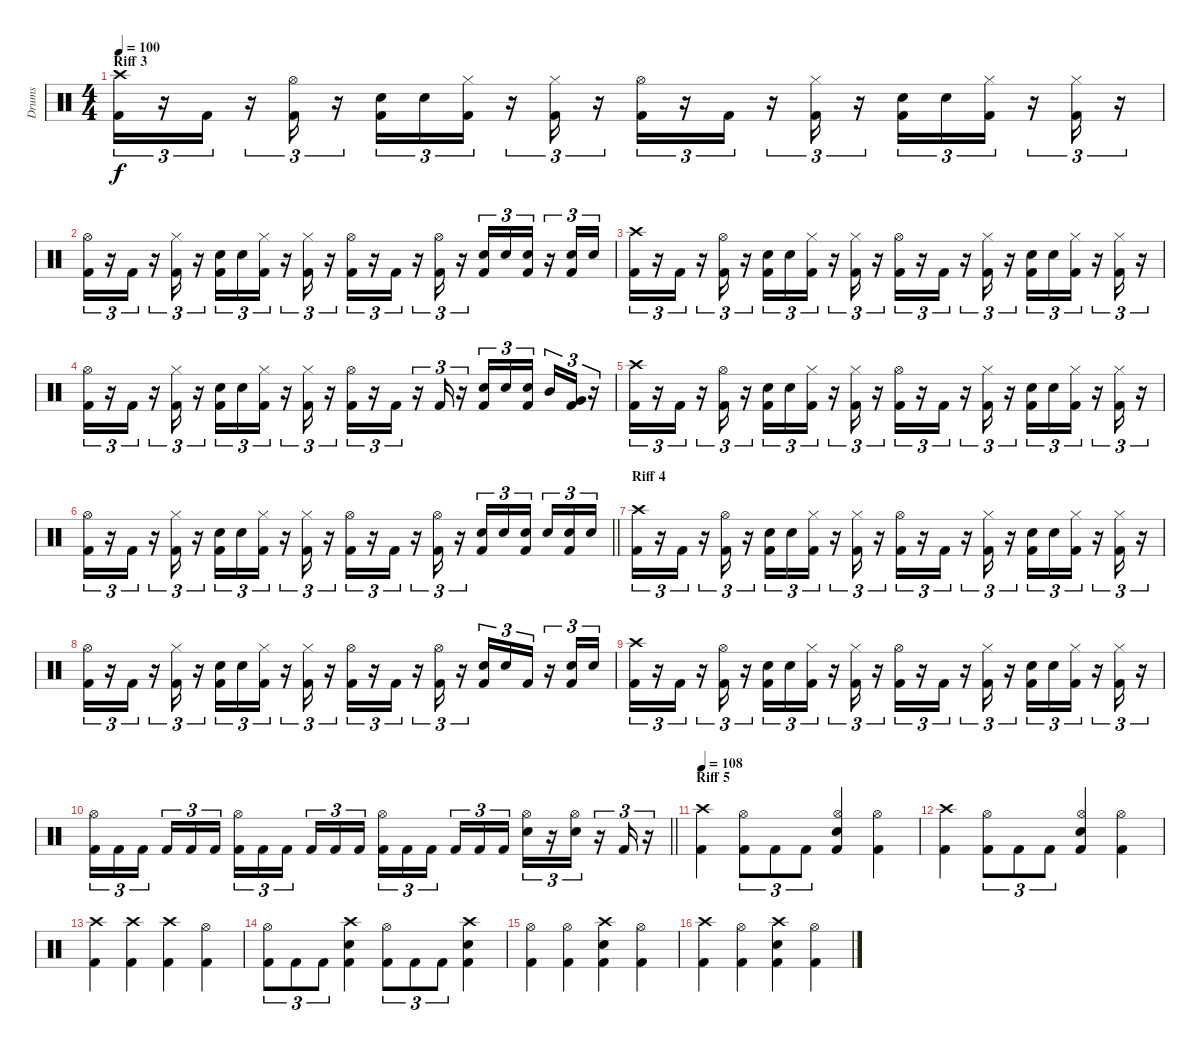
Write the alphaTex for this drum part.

\track ("Drums" "Drums") {instrument percussion}
\staff {score}
\articulation defaults
\ts (4 4)
\section ("" "Riff 3")
\tempo 100
\clef neutral
\ks c
("Crash high (hit)" "Kick (hit) 2").16{tu (3 2) dy f} r.16{tu (3 2)} "Kick (hit) 2".16{tu (3 2)} r.16{tu (3 2)} ("Hi-Hat (open)" "Kick (hit) 2").16{tu (3 2)} r.16{tu (3 2)} ("Electric Snare (hit)" "Kick (hit) 2").16{tu (3 2)} "Electric Snare (hit)".16{tu (3 2)} ("Hi-Hat (closed)" "Kick (hit) 2").16{tu (3 2)} r.16{tu (3 2)} ("Hi-Hat (closed)" "Kick (hit) 2").16{tu (3 2)} r.16{tu (3 2)} ("Hi-Hat (open)" "Kick (hit) 2").16{tu (3 2)} r.16{tu (3 2)} "Kick (hit) 2".16{tu (3 2)} r.16{tu (3 2)} ("Hi-Hat (closed)" "Kick (hit) 2").16{tu (3 2)} r.16{tu (3 2)} ("Electric Snare (hit)" "Kick (hit) 2").16{tu (3 2)} "Electric Snare (hit)".16{tu (3 2)} ("Hi-Hat (closed)" "Kick (hit) 2").16{tu (3 2)} r.16{tu (3 2)} ("Hi-Hat (closed)" "Kick (hit) 2").16{tu (3 2)} r.16{tu (3 2)} |
("Hi-Hat (open)" "Kick (hit) 2").16{tu (3 2)} r.16{tu (3 2)} "Kick (hit) 2".16{tu (3 2)} r.16{tu (3 2)} ("Hi-Hat (closed)" "Kick (hit) 2").16{tu (3 2)} r.16{tu (3 2)} ("Electric Snare (hit)" "Kick (hit) 2").16{tu (3 2)} "Electric Snare (hit)".16{tu (3 2)} ("Hi-Hat (closed)" "Kick (hit) 2").16{tu (3 2)} r.16{tu (3 2)} ("Hi-Hat (closed)" "Kick (hit) 2").16{tu (3 2)} r.16{tu (3 2)} ("Hi-Hat (open)" "Kick (hit) 2").16{tu (3 2)} r.16{tu (3 2)} "Kick (hit) 2".16{tu (3 2)} r.16{tu (3 2)} ("Hi-Hat (open)" "Kick (hit) 2").16{tu (3 2)} r.16{tu (3 2)} ("Electric Snare (hit)" "Kick (hit) 2").16{tu (3 2)} "Electric Snare (hit)".16{tu (3 2)} ("Electric Snare (hit)" "Kick (hit) 2").16{tu (3 2)} r.16{tu (3 2)} ("Electric Snare (hit)" "Kick (hit) 2").16{tu (3 2)} "Electric Snare (hit)".16{tu (3 2)} |
("Crash high (hit)" "Kick (hit) 2").16{tu (3 2)} r.16{tu (3 2)} "Kick (hit) 2".16{tu (3 2)} r.16{tu (3 2)} ("Hi-Hat (open)" "Kick (hit) 2").16{tu (3 2)} r.16{tu (3 2)} ("Electric Snare (hit)" "Kick (hit) 2").16{tu (3 2)} "Electric Snare (hit)".16{tu (3 2)} ("Hi-Hat (closed)" "Kick (hit) 2").16{tu (3 2)} r.16{tu (3 2)} ("Hi-Hat (closed)" "Kick (hit) 2").16{tu (3 2)} r.16{tu (3 2)} ("Hi-Hat (open)" "Kick (hit) 2").16{tu (3 2)} r.16{tu (3 2)} "Kick (hit) 2".16{tu (3 2)} r.16{tu (3 2)} ("Hi-Hat (closed)" "Kick (hit) 2").16{tu (3 2)} r.16{tu (3 2)} ("Electric Snare (hit)" "Kick (hit) 2").16{tu (3 2)} "Electric Snare (hit)".16{tu (3 2)} ("Hi-Hat (closed)" "Kick (hit) 2").16{tu (3 2)} r.16{tu (3 2)} ("Hi-Hat (closed)" "Kick (hit) 2").16{tu (3 2)} r.16{tu (3 2)} |
("Hi-Hat (open)" "Kick (hit) 2").16{tu (3 2)} r.16{tu (3 2)} "Kick (hit) 2".16{tu (3 2)} r.16{tu (3 2)} ("Hi-Hat (closed)" "Kick (hit) 2").16{tu (3 2)} r.16{tu (3 2)} ("Electric Snare (hit)" "Kick (hit) 2").16{tu (3 2)} "Electric Snare (hit)".16{tu (3 2)} ("Hi-Hat (closed)" "Kick (hit) 2").16{tu (3 2)} r.16{tu (3 2)} ("Hi-Hat (closed)" "Kick (hit) 2").16{tu (3 2)} r.16{tu (3 2)} ("Hi-Hat (open)" "Kick (hit) 2").16{tu (3 2)} r.16{tu (3 2)} "Kick (hit) 2".16{tu (3 2)} r.16{tu (3 2)} "Kick (hit) 2".16{tu (3 2)} r.16{tu (3 2)} ("Electric Snare (hit)" "Kick (hit) 2").16{tu (3 2)} "Electric Snare (hit)".16{tu (3 2)} ("Electric Snare (hit)" "Kick (hit) 2").16{tu (3 2) beam splitsecondary} "Mid Tom (hit)".16{tu (3 2)} ("Very Low Tom (hit)" "Kick (hit) 2").16{tu (3 2)} r.16{tu (3 2)} |
("Crash high (hit)" "Kick (hit) 2").16{tu (3 2)} r.16{tu (3 2)} "Kick (hit) 2".16{tu (3 2)} r.16{tu (3 2)} ("Hi-Hat (open)" "Kick (hit) 2").16{tu (3 2)} r.16{tu (3 2)} ("Electric Snare (hit)" "Kick (hit) 2").16{tu (3 2)} "Electric Snare (hit)".16{tu (3 2)} ("Hi-Hat (closed)" "Kick (hit) 2").16{tu (3 2)} r.16{tu (3 2)} ("Hi-Hat (closed)" "Kick (hit) 2").16{tu (3 2)} r.16{tu (3 2)} ("Hi-Hat (open)" "Kick (hit) 2").16{tu (3 2)} r.16{tu (3 2)} "Kick (hit) 2".16{tu (3 2)} r.16{tu (3 2)} ("Hi-Hat (closed)" "Kick (hit) 2").16{tu (3 2)} r.16{tu (3 2)} ("Electric Snare (hit)" "Kick (hit) 2").16{tu (3 2)} "Electric Snare (hit)".16{tu (3 2)} ("Hi-Hat (closed)" "Kick (hit) 2").16{tu (3 2)} r.16{tu (3 2)} ("Hi-Hat (closed)" "Kick (hit) 2").16{tu (3 2)} r.16{tu (3 2)} |
\barLineRight lightlight
("Hi-Hat (open)" "Kick (hit) 2").16{tu (3 2)} r.16{tu (3 2)} "Kick (hit) 2".16{tu (3 2)} r.16{tu (3 2)} ("Hi-Hat (closed)" "Kick (hit) 2").16{tu (3 2)} r.16{tu (3 2)} ("Electric Snare (hit)" "Kick (hit) 2").16{tu (3 2)} "Electric Snare (hit)".16{tu (3 2)} ("Hi-Hat (closed)" "Kick (hit) 2").16{tu (3 2)} r.16{tu (3 2)} ("Hi-Hat (closed)" "Kick (hit) 2").16{tu (3 2)} r.16{tu (3 2)} ("Hi-Hat (open)" "Kick (hit) 2").16{tu (3 2)} r.16{tu (3 2)} "Kick (hit) 2".16{tu (3 2)} r.16{tu (3 2)} ("Hi-Hat (open)" "Kick (hit) 2").16{tu (3 2)} r.16{tu (3 2)} ("Electric Snare (hit)" "Kick (hit) 2").16{tu (3 2)} "Electric Snare (hit)".16{tu (3 2)} ("Electric Snare (hit)" "Kick (hit) 2").16{tu (3 2) beam splitsecondary} "Electric Snare (hit)".16{tu (3 2)} ("Electric Snare (hit)" "Kick (hit) 2").16{tu (3 2)} "Electric Snare (hit)".16{tu (3 2)} |
\section ("" "Riff 4")
("Crash high (hit)" "Kick (hit) 2").16{tu (3 2)} r.16{tu (3 2)} "Kick (hit) 2".16{tu (3 2)} r.16{tu (3 2)} ("Hi-Hat (open)" "Kick (hit) 2").16{tu (3 2)} r.16{tu (3 2)} ("Electric Snare (hit)" "Kick (hit) 2").16{tu (3 2)} "Electric Snare (hit)".16{tu (3 2)} ("Hi-Hat (closed)" "Kick (hit) 2").16{tu (3 2)} r.16{tu (3 2)} ("Hi-Hat (closed)" "Kick (hit) 2").16{tu (3 2)} r.16{tu (3 2)} ("Hi-Hat (open)" "Kick (hit) 2").16{tu (3 2)} r.16{tu (3 2)} "Kick (hit) 2".16{tu (3 2)} r.16{tu (3 2)} ("Hi-Hat (closed)" "Kick (hit) 2").16{tu (3 2)} r.16{tu (3 2)} ("Electric Snare (hit)" "Kick (hit) 2").16{tu (3 2)} "Electric Snare (hit)".16{tu (3 2)} ("Hi-Hat (closed)" "Kick (hit) 2").16{tu (3 2)} r.16{tu (3 2)} ("Hi-Hat (closed)" "Kick (hit) 2").16{tu (3 2)} r.16{tu (3 2)} |
("Hi-Hat (open)" "Kick (hit) 2").16{tu (3 2)} r.16{tu (3 2)} "Kick (hit) 2".16{tu (3 2)} r.16{tu (3 2)} ("Hi-Hat (closed)" "Kick (hit) 2").16{tu (3 2)} r.16{tu (3 2)} ("Electric Snare (hit)" "Kick (hit) 2").16{tu (3 2)} "Electric Snare (hit)".16{tu (3 2)} ("Hi-Hat (closed)" "Kick (hit) 2").16{tu (3 2)} r.16{tu (3 2)} ("Hi-Hat (closed)" "Kick (hit) 2").16{tu (3 2)} r.16{tu (3 2)} ("Hi-Hat (open)" "Kick (hit) 2").16{tu (3 2)} r.16{tu (3 2)} "Kick (hit) 2".16{tu (3 2)} r.16{tu (3 2)} ("Hi-Hat (open)" "Kick (hit) 2").16{tu (3 2)} r.16{tu (3 2)} ("Electric Snare (hit)" "Kick (hit) 2").16{tu (3 2)} "Electric Snare (hit)".16{tu (3 2)} "Kick (hit) 2".16{tu (3 2)} r.16{tu (3 2)} ("Electric Snare (hit)" "Kick (hit) 2").16{tu (3 2)} "Electric Snare (hit)".16{tu (3 2)} |
("Crash high (hit)" "Kick (hit) 2").16{tu (3 2)} r.16{tu (3 2)} "Kick (hit) 2".16{tu (3 2)} r.16{tu (3 2)} ("Hi-Hat (open)" "Kick (hit) 2").16{tu (3 2)} r.16{tu (3 2)} ("Electric Snare (hit)" "Kick (hit) 2").16{tu (3 2)} "Electric Snare (hit)".16{tu (3 2)} ("Hi-Hat (closed)" "Kick (hit) 2").16{tu (3 2)} r.16{tu (3 2)} ("Hi-Hat (closed)" "Kick (hit) 2").16{tu (3 2)} r.16{tu (3 2)} ("Hi-Hat (open)" "Kick (hit) 2").16{tu (3 2)} r.16{tu (3 2)} "Kick (hit) 2".16{tu (3 2)} r.16{tu (3 2)} ("Hi-Hat (closed)" "Kick (hit) 2").16{tu (3 2)} r.16{tu (3 2)} ("Electric Snare (hit)" "Kick (hit) 2").16{tu (3 2)} "Electric Snare (hit)".16{tu (3 2)} ("Hi-Hat (closed)" "Kick (hit) 2").16{tu (3 2)} r.16{tu (3 2)} ("Hi-Hat (closed)" "Kick (hit) 2").16{tu (3 2)} r.16{tu (3 2)} |
\barLineRight lightlight
("Hi-Hat (open)" "Kick (hit) 2").16{tu (3 2)} "Kick (hit) 2".16{tu (3 2)} "Kick (hit) 2".16{tu (3 2) beam splitsecondary} "Kick (hit) 2".16{tu (3 2)} "Kick (hit) 2".16{tu (3 2)} "Kick (hit) 2".16{tu (3 2)} ("Hi-Hat (open)" "Kick (hit) 2").16{tu (3 2)} "Kick (hit) 2".16{tu (3 2)} "Kick (hit) 2".16{tu (3 2) beam splitsecondary} "Kick (hit) 2".16{tu (3 2)} "Kick (hit) 2".16{tu (3 2)} "Kick (hit) 2".16{tu (3 2)} ("Hi-Hat (open)" "Kick (hit) 2").16{tu (3 2)} "Kick (hit) 2".16{tu (3 2)} "Kick (hit) 2".16{tu (3 2) beam splitsecondary} "Kick (hit) 2".16{tu (3 2)} "Kick (hit) 2".16{tu (3 2)} "Kick (hit) 2".16{tu (3 2)} ("Hi-Hat (open)" "Electric Snare (hit)").16{tu (3 2)} r.16{tu (3 2)} ("Hi-Hat (open)" "Electric Snare (hit)").16{tu (3 2)} r.16{tu (3 2)} "Kick (hit) 2".16{tu (3 2)} r.16{tu (3 2)} |
\section ("" "Riff 5")
\tempo 108
("Crash high (hit)" "Kick (hit) 2").4 ("Hi-Hat (open)" "Kick (hit) 2").8{tu (3 2)} "Kick (hit) 2".8{tu (3 2)} "Kick (hit) 2".8{tu (3 2)} ("Hi-Hat (open)" "Electric Snare (hit)" "Kick (hit) 2").4 ("Hi-Hat (open)" "Kick (hit) 2").4 |
("Crash high (hit)" "Kick (hit) 2").4 ("Hi-Hat (open)" "Kick (hit) 2").8{tu (3 2)} "Kick (hit) 2".8{tu (3 2)} "Kick (hit) 2".8{tu (3 2)} ("Hi-Hat (open)" "Electric Snare (hit)" "Kick (hit) 2").4 ("Hi-Hat (open)" "Kick (hit) 2").4 |
("Crash high (hit)" "Kick (hit) 2").4 ("Crash high (hit)" "Kick (hit) 2").4 ("Crash high (hit)" "Kick (hit) 2").4 ("Hi-Hat (open)" "Kick (hit) 2").4 |
("Hi-Hat (open)" "Kick (hit) 2").8{tu (3 2)} "Kick (hit) 2".8{tu (3 2)} "Kick (hit) 2".8{tu (3 2)} ("Crash high (hit)" "Electric Snare (hit)" "Kick (hit) 2").4 ("Hi-Hat (open)" "Kick (hit) 2").8{tu (3 2)} "Kick (hit) 2".8{tu (3 2)} "Kick (hit) 2".8{tu (3 2)} ("Crash high (hit)" "Electric Snare (hit)" "Kick (hit) 2").4 |
("Hi-Hat (open)" "Kick (hit) 2").4 ("Hi-Hat (open)" "Kick (hit) 2").4 ("Crash high (hit)" "Electric Snare (hit)" "Kick (hit) 2").4 ("Hi-Hat (open)" "Kick (hit) 2").4 |
("Crash high (hit)" "Kick (hit) 2").4 ("Hi-Hat (open)" "Kick (hit) 2").4 ("Crash high (hit)" "Electric Snare (hit)" "Kick (hit) 2").4 ("Hi-Hat (open)" "Kick (hit) 2").4
